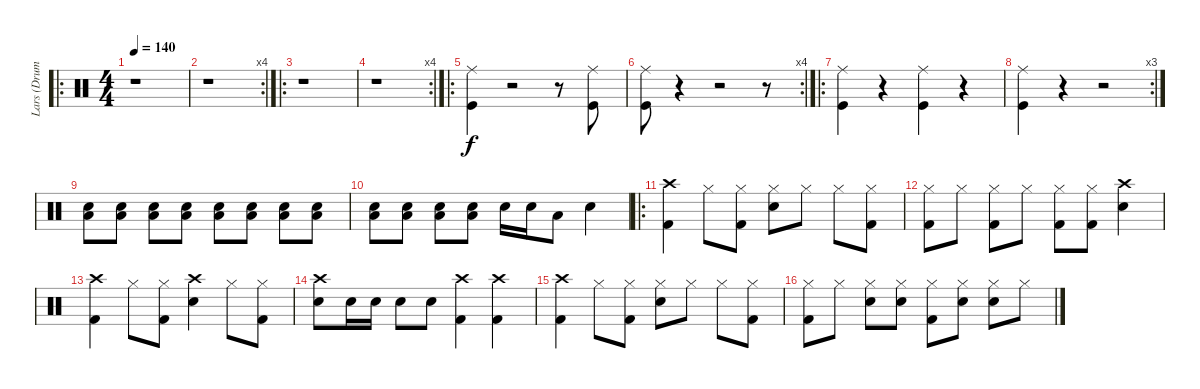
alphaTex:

\track ("Lars (Drums)" "Lars (Drum") {instrument percussion}
\staff {score}
\articulation defaults
\ro
\ts (4 4)
\tempo 140
\clef neutral
\ks c
r.1{dy f} |
\rc 4
r.1 |
\ro
r.1 |
\rc 4
r.1 |
\ro
("Kick (hit)" "Ride (middle)").4 r.2 r.8 ("Kick (hit)" "Ride (middle)").8 |
\rc 4
("Kick (hit)" "Ride (middle)").8 r.4 r.2 r.8 |
\ro
("Kick (hit)" "Ride (middle)").4 r.4 ("Kick (hit)" "Ride (middle)").4 r.4 |
\rc 3
("Kick (hit)" "Ride (middle)").4 r.4 r.2 |
("Snare (hit) 2" "Low Floor Tom (hit)").8 ("Snare (hit) 2" "Low Floor Tom (hit)").8 ("Snare (hit) 2" "Low Floor Tom (hit)").8 ("Snare (hit) 2" "Low Floor Tom (hit)").8 ("Snare (hit) 2" "Low Floor Tom (hit)").8 ("Snare (hit) 2" "Low Floor Tom (hit)").8 ("Snare (hit) 2" "Low Floor Tom (hit)").8 ("Snare (hit) 2" "Low Floor Tom (hit)").8 |
("Snare (hit) 2" "Low Floor Tom (hit)").8 ("Snare (hit) 2" "Low Floor Tom (hit)").8 ("Snare (hit) 2" "Low Floor Tom (hit)").8 ("Snare (hit) 2" "Low Floor Tom (hit)").8 "Snare (hit) 2".16 "Snare (hit) 2".16 "Low Floor Tom (hit)".8 "Snare (hit) 2".4 |
\ro
("Crash high (hit)" "Kick (hit) 2").4 "Hi-Hat (closed)".8 ("Kick (hit) 2" "Hi-Hat (closed)").8 ("Hi-Hat (closed)" "Snare (hit) 2").8 "Hi-Hat (closed)".8 "Hi-Hat (closed)".8 ("Kick (hit) 2" "Hi-Hat (closed)").8 |
("Hi-Hat (closed)" "Kick (hit) 2").8 "Hi-Hat (closed)".8 ("Hi-Hat (closed)" "Kick (hit) 2").8 "Hi-Hat (closed)".8 ("Hi-Hat (closed)" "Kick (hit) 2").8 ("Hi-Hat (closed)" "Kick (hit) 2").8 ("Crash high (hit)" "Snare (hit) 2").4 |
("Crash high (hit)" "Kick (hit) 2").4 "Hi-Hat (closed)".8 ("Hi-Hat (closed)" "Kick (hit) 2").8 ("Crash high (hit)" "Snare (hit) 2").4 "Hi-Hat (closed)".8 ("Hi-Hat (closed)" "Kick (hit) 2").8 |
("Crash high (hit)" "Snare (hit) 2").8 "Snare (hit) 2".16 "Snare (hit) 2".16 "Snare (hit) 2".8 "Snare (hit) 2".8 ("Crash high (hit)" "Kick (hit) 2").4 ("Crash high (hit)" "Kick (hit) 2").4 |
("Crash high (hit)" "Kick (hit) 2").4 "Hi-Hat (closed)".8 ("Hi-Hat (closed)" "Kick (hit) 2").8 ("Hi-Hat (closed)" "Snare (hit) 2").8 "Hi-Hat (closed)".8 "Hi-Hat (closed)".8 ("Hi-Hat (closed)" "Kick (hit) 2").8 |
("Hi-Hat (closed)" "Kick (hit) 2").8 "Hi-Hat (closed)".8 ("Hi-Hat (closed)" "Snare (hit) 2").8 ("Hi-Hat (closed)" "Snare (hit) 2").8 ("Hi-Hat (closed)" "Kick (hit) 2").8 ("Hi-Hat (closed)" "Snare (hit) 2").8 ("Hi-Hat (closed)" "Snare (hit) 2").8 "Hi-Hat (closed)".8
